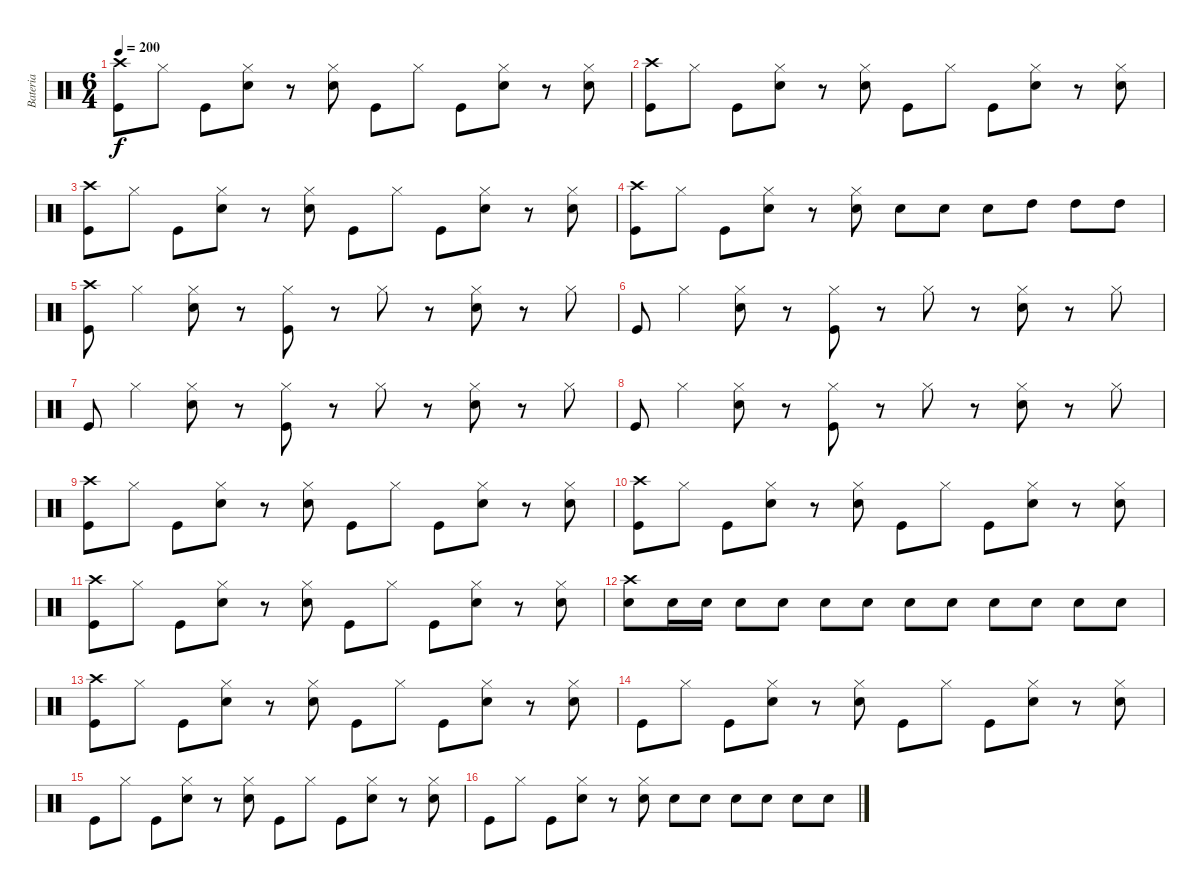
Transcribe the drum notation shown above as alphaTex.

\track ("Bateria" "Bateria") {instrument percussion}
\staff {score}
\articulation defaults
\ts (6 4)
\tempo 200
\clef neutral
\ks c
("Crash high (hit)" "Kick (hit)").8{dy f} "Hi-Hat (closed)".8 "Kick (hit)".8 ("Electric Snare (hit)" "Hi-Hat (closed)").8 r.8 ("Electric Snare (hit)" "Hi-Hat (closed)").8 "Kick (hit)".8 "Hi-Hat (closed)".8 "Kick (hit)".8 ("Electric Snare (hit)" "Hi-Hat (closed)").8 r.8 ("Electric Snare (hit)" "Hi-Hat (closed)").8 |
("Crash high (hit)" "Kick (hit)").8 "Hi-Hat (closed)".8 "Kick (hit)".8 ("Electric Snare (hit)" "Hi-Hat (closed)").8 r.8 ("Electric Snare (hit)" "Hi-Hat (closed)").8 "Kick (hit)".8 "Hi-Hat (closed)".8 "Kick (hit)".8 ("Electric Snare (hit)" "Hi-Hat (closed)").8 r.8 ("Electric Snare (hit)" "Hi-Hat (closed)").8 |
("Crash high (hit)" "Kick (hit)").8 "Hi-Hat (closed)".8 "Kick (hit)".8 ("Electric Snare (hit)" "Hi-Hat (closed)").8 r.8 ("Electric Snare (hit)" "Hi-Hat (closed)").8 "Kick (hit)".8 "Hi-Hat (closed)".8 "Kick (hit)".8 ("Electric Snare (hit)" "Hi-Hat (closed)").8 r.8 ("Electric Snare (hit)" "Hi-Hat (closed)").8 |
("Crash high (hit)" "Kick (hit)").8 "Hi-Hat (closed)".8 "Kick (hit)".8 ("Electric Snare (hit)" "Hi-Hat (closed)").8 r.8 ("Electric Snare (hit)" "Hi-Hat (closed)").8 "Electric Snare (hit)".8 "Electric Snare (hit)".8 "Electric Snare (hit)".8 "High Tom (hit)".8 "High Tom (hit)".8 "High Tom (hit)".8 |
("Crash high (hit)" "Kick (hit)").8 "Hi-Hat (closed)".4 ("Hi-Hat (closed)" "Electric Snare (hit)").8 r.8 ("Hi-Hat (closed)" "Kick (hit)").8 r.8 "Hi-Hat (closed)".8 r.8 ("Hi-Hat (closed)" "Electric Snare (hit)").8 r.8 "Hi-Hat (closed)".8 |
"Kick (hit)".8 "Hi-Hat (closed)".4 ("Hi-Hat (closed)" "Electric Snare (hit)").8 r.8 ("Hi-Hat (closed)" "Kick (hit)").8 r.8 "Hi-Hat (closed)".8 r.8 ("Hi-Hat (closed)" "Electric Snare (hit)").8 r.8 "Hi-Hat (closed)".8 |
"Kick (hit)".8 "Hi-Hat (closed)".4 ("Hi-Hat (closed)" "Electric Snare (hit)").8 r.8 ("Hi-Hat (closed)" "Kick (hit)").8 r.8 "Hi-Hat (closed)".8 r.8 ("Hi-Hat (closed)" "Electric Snare (hit)").8 r.8 "Hi-Hat (closed)".8 |
"Kick (hit)".8 "Hi-Hat (closed)".4 ("Hi-Hat (closed)" "Electric Snare (hit)").8 r.8 ("Hi-Hat (closed)" "Kick (hit)").8 r.8 "Hi-Hat (closed)".8 r.8 ("Hi-Hat (closed)" "Electric Snare (hit)").8 r.8 "Hi-Hat (closed)".8 |
("Crash high (hit)" "Kick (hit)").8 "Hi-Hat (closed)".8 "Kick (hit)".8 ("Electric Snare (hit)" "Hi-Hat (closed)").8 r.8 ("Electric Snare (hit)" "Hi-Hat (closed)").8 "Kick (hit)".8 "Hi-Hat (closed)".8 "Kick (hit)".8 ("Electric Snare (hit)" "Hi-Hat (closed)").8 r.8 ("Electric Snare (hit)" "Hi-Hat (closed)").8 |
("Crash high (hit)" "Kick (hit)").8 "Hi-Hat (closed)".8 "Kick (hit)".8 ("Electric Snare (hit)" "Hi-Hat (closed)").8 r.8 ("Electric Snare (hit)" "Hi-Hat (closed)").8 "Kick (hit)".8 "Hi-Hat (closed)".8 "Kick (hit)".8 ("Electric Snare (hit)" "Hi-Hat (closed)").8 r.8 ("Electric Snare (hit)" "Hi-Hat (closed)").8 |
("Crash high (hit)" "Kick (hit)").8 "Hi-Hat (closed)".8 "Kick (hit)".8 ("Electric Snare (hit)" "Hi-Hat (closed)").8 r.8 ("Electric Snare (hit)" "Hi-Hat (closed)").8 "Kick (hit)".8 "Hi-Hat (closed)".8 "Kick (hit)".8 ("Electric Snare (hit)" "Hi-Hat (closed)").8 r.8 ("Electric Snare (hit)" "Hi-Hat (closed)").8 |
("Electric Snare (hit)" "Crash high (hit)").8 "Electric Snare (hit)".16 "Electric Snare (hit)".16 "Electric Snare (hit)".8 "Electric Snare (hit)".8 "Electric Snare (hit)".8 "Electric Snare (hit)".8 "Electric Snare (hit)".8 "Electric Snare (hit)".8 "Electric Snare (hit)".8 "Electric Snare (hit)".8 "Electric Snare (hit)".8 "Snare (hit) 2".8 |
("Kick (hit)" "Crash high (hit)").8 "Hi-Hat (closed)".8 "Kick (hit)".8 ("Electric Snare (hit)" "Hi-Hat (closed)").8 r.8 ("Electric Snare (hit)" "Hi-Hat (closed)").8 "Kick (hit)".8 "Hi-Hat (closed)".8 "Kick (hit)".8 ("Electric Snare (hit)" "Hi-Hat (closed)").8 r.8 ("Electric Snare (hit)" "Hi-Hat (closed)").8 |
"Kick (hit)".8 "Hi-Hat (closed)".8 "Kick (hit)".8 ("Electric Snare (hit)" "Hi-Hat (closed)").8 r.8 ("Electric Snare (hit)" "Hi-Hat (closed)").8 "Kick (hit)".8 "Hi-Hat (closed)".8 "Kick (hit)".8 ("Electric Snare (hit)" "Hi-Hat (closed)").8 r.8 ("Electric Snare (hit)" "Hi-Hat (closed)").8 |
"Kick (hit)".8 "Hi-Hat (closed)".8 "Kick (hit)".8 ("Electric Snare (hit)" "Hi-Hat (closed)").8 r.8 ("Electric Snare (hit)" "Hi-Hat (closed)").8 "Kick (hit)".8 "Hi-Hat (closed)".8 "Kick (hit)".8 ("Electric Snare (hit)" "Hi-Hat (closed)").8 r.8 ("Electric Snare (hit)" "Hi-Hat (closed)").8 |
"Kick (hit)".8 "Hi-Hat (closed)".8 "Kick (hit)".8 ("Electric Snare (hit)" "Hi-Hat (closed)").8 r.8 ("Hi-Hat (closed)" "Electric Snare (hit)").8 "Electric Snare (hit)".8 "Electric Snare (hit)".8 "Electric Snare (hit)".8 "Electric Snare (hit)".8 "Electric Snare (hit)".8 "Electric Snare (hit)".8
